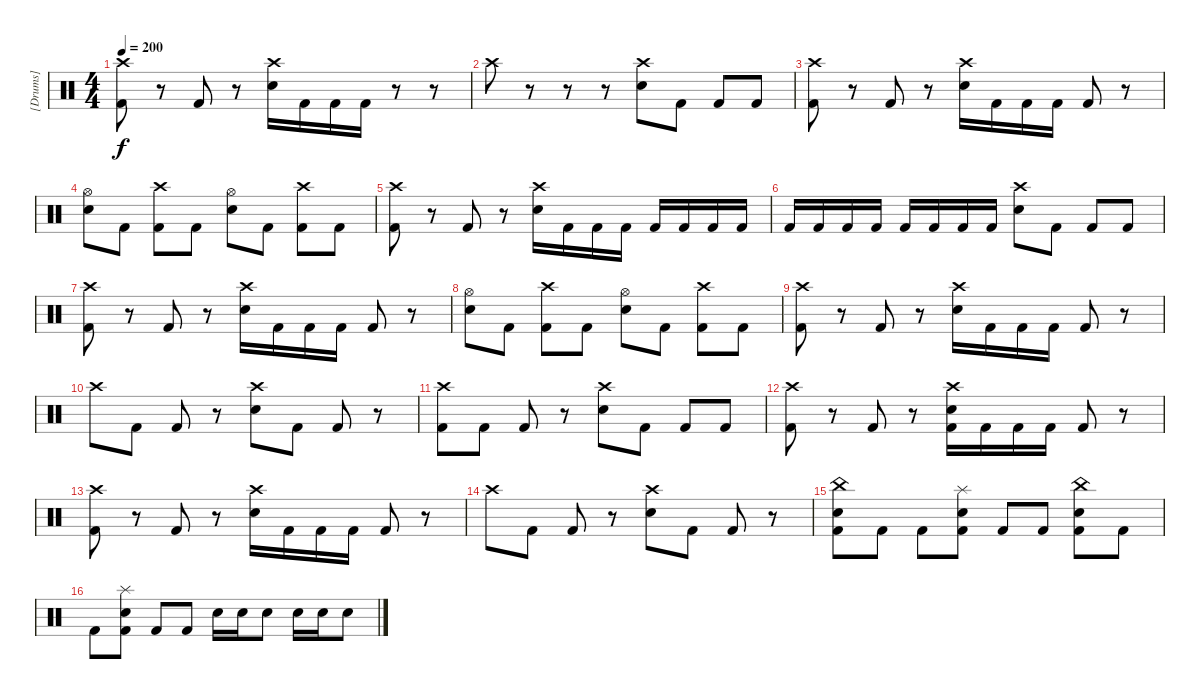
\track ("[Drums]" "[Drums]") {instrument percussion}
\staff {score}
\articulation defaults
\ts (4 4)
\tempo 200
\clef neutral
\ks c
("Crash high (hit)" "Kick (hit) 2").8{dy f} r.8 "Kick (hit) 2".8 r.8 ("Crash high (hit)" "Electric Snare (hit)").16 "Kick (hit) 2".16 "Kick (hit) 2".16 "Kick (hit) 2".16 r.8 r.8 |
"Crash high (hit)".8 r.8 r.8 r.8 ("Crash high (hit)" "Electric Snare (hit)").8 "Kick (hit) 2".8 "Kick (hit) 2".8 "Kick (hit) 2".8 |
("Crash high (hit)" "Kick (hit) 2").8 r.8 "Kick (hit) 2".8 r.8 ("Crash high (hit)" "Electric Snare (hit)").16 "Kick (hit) 2".16 "Kick (hit) 2".16 "Kick (hit) 2".16 "Kick (hit) 2".8 r.8 |
("Hi-Hat (open)" "Electric Snare (hit)").8 "Kick (hit) 2".8 ("Crash high (hit)" "Kick (hit) 2").8 "Kick (hit) 2".8 ("Hi-Hat (open)" "Electric Snare (hit)").8 "Kick (hit) 2".8 ("Crash high (hit)" "Kick (hit) 2").8 "Kick (hit) 2".8 |
("Crash high (hit)" "Kick (hit) 2").8 r.8 "Kick (hit) 2".8 r.8 ("Crash high (hit)" "Electric Snare (hit)").16 "Kick (hit) 2".16 "Kick (hit) 2".16 "Kick (hit) 2".16 "Kick (hit) 2".16 "Kick (hit) 2".16 "Kick (hit) 2".16 "Kick (hit) 2".16 |
"Kick (hit) 2".16 "Kick (hit) 2".16 "Kick (hit) 2".16 "Kick (hit) 2".16 "Kick (hit) 2".16 "Kick (hit) 2".16 "Kick (hit) 2".16 "Kick (hit) 2".16 ("Crash high (hit)" "Electric Snare (hit)").8 "Kick (hit) 2".8 "Kick (hit) 2".8 "Kick (hit) 2".8 |
("Crash high (hit)" "Kick (hit) 2").8 r.8 "Kick (hit) 2".8 r.8 ("Crash high (hit)" "Electric Snare (hit)").16 "Kick (hit) 2".16 "Kick (hit) 2".16 "Kick (hit) 2".16 "Kick (hit) 2".8 r.8 |
("Hi-Hat (open)" "Electric Snare (hit)").8 "Kick (hit) 2".8 ("Crash high (hit)" "Kick (hit) 2").8 "Kick (hit) 2".8 ("Hi-Hat (open)" "Electric Snare (hit)").8 "Kick (hit) 2".8 ("Crash high (hit)" "Kick (hit) 2").8 "Kick (hit) 2".8 |
("Crash high (hit)" "Kick (hit) 2").8 r.8 "Kick (hit) 2".8 r.8 ("Crash high (hit)" "Electric Snare (hit)").16 "Kick (hit) 2".16 "Kick (hit) 2".16 "Kick (hit) 2".16 "Kick (hit) 2".8 r.8 |
"Crash high (hit)".8 "Kick (hit) 2".8 "Kick (hit) 2".8 r.8 ("Crash high (hit)" "Electric Snare (hit)").8 "Kick (hit) 2".8 "Kick (hit) 2".8 r.8 |
("Crash high (hit)" "Kick (hit) 2").8 "Kick (hit) 2".8 "Kick (hit) 2".8 r.8 ("Crash high (hit)" "Electric Snare (hit)").8 "Kick (hit) 2".8 "Kick (hit) 2".8 "Kick (hit) 2".8 |
("Crash high (hit)" "Kick (hit) 2").8 r.8 "Kick (hit) 2".8 r.8 ("Crash high (hit)" "Electric Snare (hit)" "Kick (hit) 2").16 "Kick (hit) 2".16 "Kick (hit) 2".16 "Kick (hit) 2".16 "Kick (hit) 2".8 r.8 |
("Crash high (hit)" "Kick (hit) 2").8 r.8 "Kick (hit) 2".8 r.8 ("Crash high (hit)" "Electric Snare (hit)").16 "Kick (hit) 2".16 "Kick (hit) 2".16 "Kick (hit) 2".16 "Kick (hit) 2".8 r.8 |
"Crash high (hit)".8 "Kick (hit) 2".8 "Kick (hit) 2".8 r.8 ("Crash high (hit)" "Electric Snare (hit)").8 "Kick (hit) 2".8 "Kick (hit) 2".8 r.8 |
("China (hit)" "Electric Snare (hit)" "Kick (hit) 2").8 "Kick (hit) 2".8 "Kick (hit) 2".8 ("Splash (hit)" "Electric Snare (hit)" "Kick (hit) 2").8 "Kick (hit) 2".8 "Kick (hit) 2".8 ("China (hit)" "Electric Snare (hit)" "Kick (hit) 2").8 "Kick (hit) 2".8 |
"Kick (hit) 2".8 ("Splash (hit)" "Electric Snare (hit)" "Kick (hit) 2").8 "Kick (hit) 2".8 "Kick (hit) 2".8 "Electric Snare (hit)".16 "Electric Snare (hit)".16 "Electric Snare (hit)".8 "Electric Snare (hit)".16 "Electric Snare (hit)".16 "Electric Snare (hit)".8
